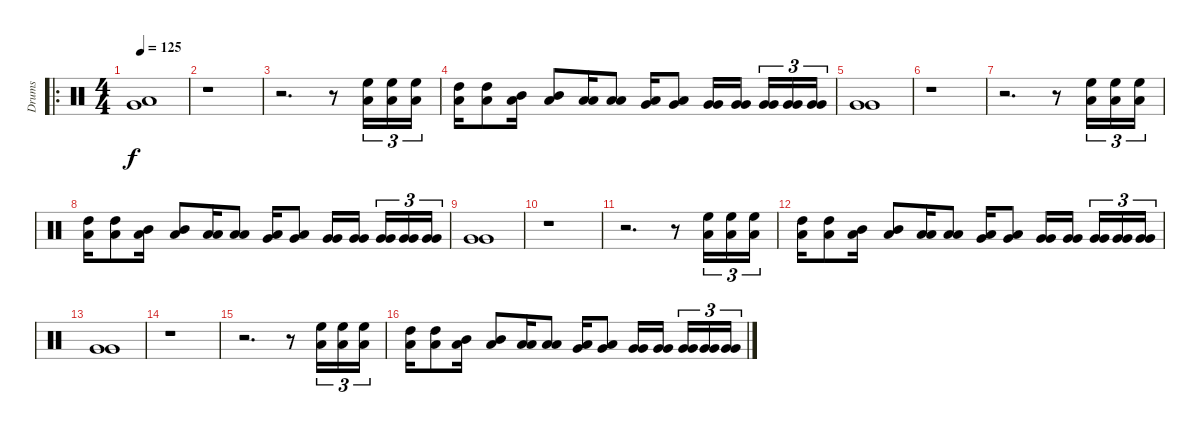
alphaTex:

\track ("Drums" "Drums") {instrument percussion}
\staff {score}
\articulation defaults
\ro
\ts (4 4)
\tempo 125
\clef neutral
\ks c
("Very Low Tom (hit)" "Low Tom (hit)").1{dy f} |
r.1 |
r.2{d} r.8 ("High Floor Tom (hit)" "Low Tom (hit)").16{tu (3 2)} ("High Floor Tom (hit)" "Low Tom (hit)").16{tu (3 2)} ("High Floor Tom (hit)" "Low Tom (hit)").16{tu (3 2)} |
("High Tom (hit)" "Low Tom (hit)").16 ("High Tom (hit)" "Low Tom (hit)").8 ("Mid Tom (hit)" "Low Tom (hit)").16 ("Mid Tom (hit)" "Low Tom (hit)").8 ("Low Tom (hit)" "Low Tom (hit)").16 ("Low Tom (hit)" "Low Tom (hit)").8 ("Low Tom (hit)" "Very Low Tom (hit)").16 ("Low Tom (hit)" "Very Low Tom (hit)").8 ("Very Low Tom (hit)" "Very Low Tom (hit)").16 ("Very Low Tom (hit)" "Very Low Tom (hit)").16 ("Very Low Tom (hit)" "Very Low Tom (hit)").16{tu (3 2)} ("Very Low Tom (hit)" "Very Low Tom (hit)").16{tu (3 2)} ("Very Low Tom (hit)" "Very Low Tom (hit)").16{tu (3 2)} |
("Very Low Tom (hit)" "Very Low Tom (hit)").1 |
r.1 |
r.2{d} r.8 ("High Floor Tom (hit)" "Low Tom (hit)").16{tu (3 2)} ("High Floor Tom (hit)" "Low Tom (hit)").16{tu (3 2)} ("High Floor Tom (hit)" "Low Tom (hit)").16{tu (3 2)} |
("High Tom (hit)" "Low Tom (hit)").16 ("High Tom (hit)" "Low Tom (hit)").8 ("Mid Tom (hit)" "Low Tom (hit)").16 ("Mid Tom (hit)" "Low Tom (hit)").8 ("Low Tom (hit)" "Low Tom (hit)").16 ("Low Tom (hit)" "Low Tom (hit)").8 ("Low Tom (hit)" "Very Low Tom (hit)").16 ("Low Tom (hit)" "Very Low Tom (hit)").8 ("Very Low Tom (hit)" "Very Low Tom (hit)").16 ("Very Low Tom (hit)" "Very Low Tom (hit)").16 ("Very Low Tom (hit)" "Very Low Tom (hit)").16{tu (3 2)} ("Very Low Tom (hit)" "Very Low Tom (hit)").16{tu (3 2)} ("Very Low Tom (hit)" "Very Low Tom (hit)").16{tu (3 2)} |
("Very Low Tom (hit)" "Very Low Tom (hit)").1 |
r.1 |
r.2{d} r.8 ("High Floor Tom (hit)" "Low Tom (hit)").16{tu (3 2)} ("High Floor Tom (hit)" "Low Tom (hit)").16{tu (3 2)} ("High Floor Tom (hit)" "Low Tom (hit)").16{tu (3 2)} |
("High Tom (hit)" "Low Tom (hit)").16 ("High Tom (hit)" "Low Tom (hit)").8 ("Mid Tom (hit)" "Low Tom (hit)").16 ("Mid Tom (hit)" "Low Tom (hit)").8 ("Low Tom (hit)" "Low Tom (hit)").16 ("Low Tom (hit)" "Low Tom (hit)").8 ("Low Tom (hit)" "Very Low Tom (hit)").16 ("Low Tom (hit)" "Very Low Tom (hit)").8 ("Very Low Tom (hit)" "Very Low Tom (hit)").16 ("Very Low Tom (hit)" "Very Low Tom (hit)").16 ("Very Low Tom (hit)" "Very Low Tom (hit)").16{tu (3 2)} ("Very Low Tom (hit)" "Very Low Tom (hit)").16{tu (3 2)} ("Very Low Tom (hit)" "Very Low Tom (hit)").16{tu (3 2)} |
("Very Low Tom (hit)" "Very Low Tom (hit)").1 |
r.1 |
r.2{d} r.8 ("High Floor Tom (hit)" "Low Tom (hit)").16{tu (3 2)} ("High Floor Tom (hit)" "Low Tom (hit)").16{tu (3 2)} ("High Floor Tom (hit)" "Low Tom (hit)").16{tu (3 2)} |
("High Tom (hit)" "Low Tom (hit)").16 ("High Tom (hit)" "Low Tom (hit)").8 ("Mid Tom (hit)" "Low Tom (hit)").16 ("Mid Tom (hit)" "Low Tom (hit)").8 ("Low Tom (hit)" "Low Tom (hit)").16 ("Low Tom (hit)" "Low Tom (hit)").8 ("Low Tom (hit)" "Very Low Tom (hit)").16 ("Low Tom (hit)" "Very Low Tom (hit)").8 ("Very Low Tom (hit)" "Very Low Tom (hit)").16 ("Very Low Tom (hit)" "Very Low Tom (hit)").16 ("Very Low Tom (hit)" "Very Low Tom (hit)").16{tu (3 2)} ("Very Low Tom (hit)" "Very Low Tom (hit)").16{tu (3 2)} ("Very Low Tom (hit)" "Very Low Tom (hit)").16{tu (3 2)}
